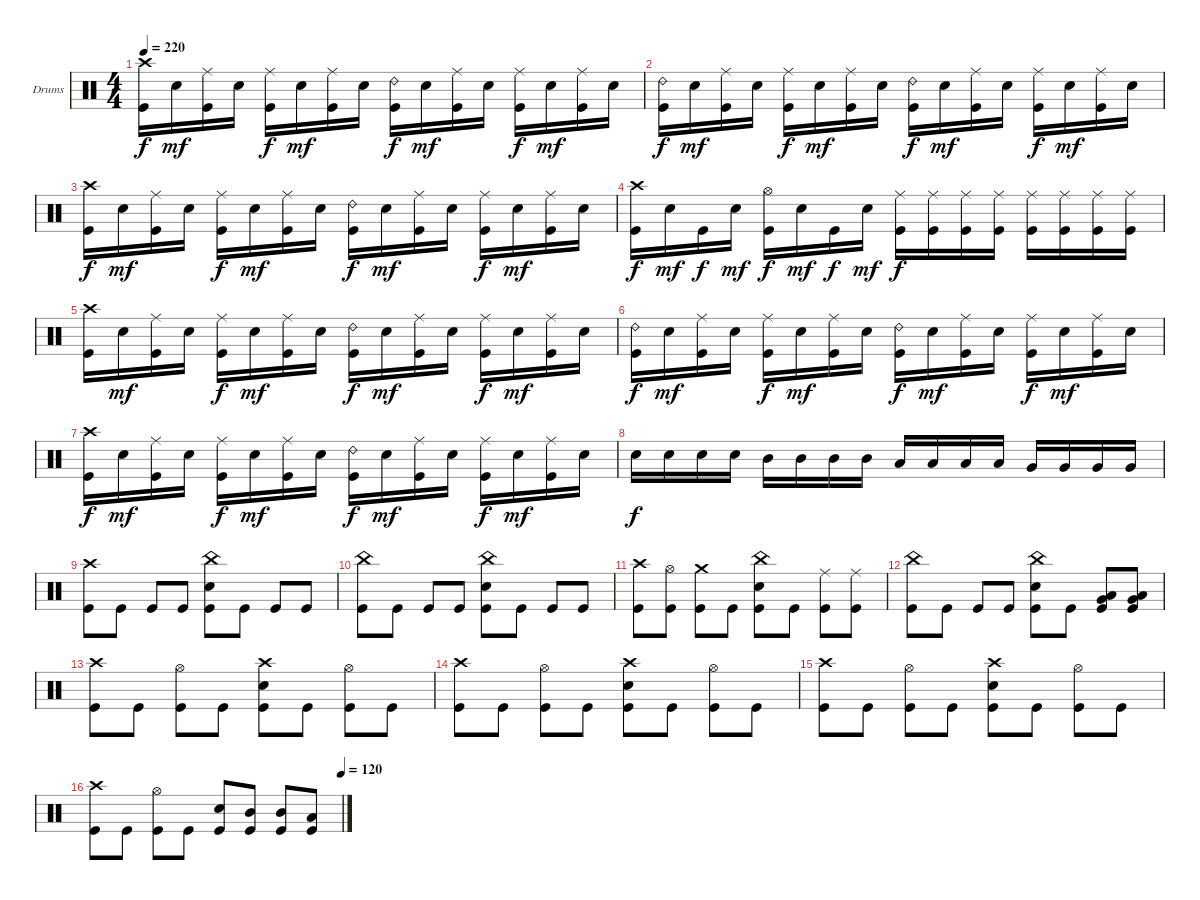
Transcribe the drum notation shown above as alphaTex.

\defaultSystemsLayout 4
\bracketExtendMode groupsimilarinstruments
\firstSystemTrackNameOrientation horizontal
\otherSystemsTrackNameOrientation horizontal
\track ("Drumkit" "Drums") {instrument percussion}
\staff {score}
\articulation defaults
\ts (4 4)
\tempo 220
\clef neutral
\scale
0.333333
\ks c
("Crash high (hit)" "Kick (hit)").16{dy f} "Snare (hit) 2".16{dy mf} ("Ride (middle)" "Kick (hit)").16 "Snare (hit) 2".16 ("Ride (middle)" "Kick (hit)").16{dy f} "Snare (hit) 2".16{dy mf} ("Ride (middle)" "Kick (hit)").16 "Snare (hit) 2".16 ("Ride (bell) 2" "Kick (hit)").16{dy f} "Snare (hit) 2".16{dy mf} ("Ride (middle)" "Kick (hit)").16 "Snare (hit) 2".16 ("Ride (middle)" "Kick (hit)").16{dy f} "Snare (hit) 2".16{dy mf} ("Ride (middle)" "Kick (hit)").16 "Snare (hit) 2".16 |
\scale
0.333333 ("Ride (bell) 2" "Kick (hit)").16{dy f} "Snare (hit) 2".16{dy mf} ("Ride (middle)" "Kick (hit)").16 "Snare (hit) 2".16 ("Ride (middle)" "Kick (hit)").16{dy f} "Snare (hit) 2".16{dy mf} ("Ride (middle)" "Kick (hit)").16 "Snare (hit) 2".16 ("Ride (bell) 2" "Kick (hit)").16{dy f} "Snare (hit) 2".16{dy mf} ("Ride (middle)" "Kick (hit)").16 "Snare (hit) 2".16 ("Ride (middle)" "Kick (hit)").16{dy f} "Snare (hit) 2".16{dy mf} ("Ride (middle)" "Kick (hit)").16 "Snare (hit) 2".16 |
\scale
0.333333 ("Crash high (hit)" "Kick (hit)").16{dy f} "Snare (hit) 2".16{dy mf} ("Ride (middle)" "Kick (hit)").16 "Snare (hit) 2".16 ("Ride (middle)" "Kick (hit)").16{dy f} "Snare (hit) 2".16{dy mf} ("Ride (middle)" "Kick (hit)").16 "Snare (hit) 2".16 ("Ride (bell) 2" "Kick (hit)").16{dy f} "Snare (hit) 2".16{dy mf} ("Ride (middle)" "Kick (hit)").16 "Snare (hit) 2".16 ("Ride (middle)" "Kick (hit)").16{dy f} "Snare (hit) 2".16{dy mf} ("Ride (middle)" "Kick (hit)").16 "Snare (hit) 2".16 |
\scale
0.333333 ("Crash high (hit)" "Kick (hit)").16{dy f} "Snare (hit) 2".16{dy mf} "Kick (hit)".16{dy f} "Snare (hit) 2".16{dy mf} ("Hi-Hat (open)" "Kick (hit)").16{dy f} "Snare (hit) 2".16{dy mf} "Kick (hit)".16{dy f} "Snare (hit) 2".16{dy mf} ("Ride (middle)" "Kick (hit)").16{dy f} ("Ride (middle)" "Kick (hit)").16 ("Ride (middle)" "Kick (hit)").16 ("Ride (middle)" "Kick (hit)").16 ("Ride (middle)" "Kick (hit)").16 ("Ride (middle)" "Kick (hit)").16 ("Ride (middle)" "Kick (hit)").16 ("Ride (middle)" "Kick (hit)").16 |
\scale
0.333333 ("Crash high (hit)" "Kick (hit)").16 "Snare (hit) 2".16{dy mf} ("Ride (middle)" "Kick (hit)").16 "Snare (hit) 2".16 ("Ride (middle)" "Kick (hit)").16{dy f} "Snare (hit) 2".16{dy mf} ("Ride (middle)" "Kick (hit)").16 "Snare (hit) 2".16 ("Ride (bell) 2" "Kick (hit)").16{dy f} "Snare (hit) 2".16{dy mf} ("Ride (middle)" "Kick (hit)").16 "Snare (hit) 2".16 ("Ride (middle)" "Kick (hit)").16{dy f} "Snare (hit) 2".16{dy mf} ("Ride (middle)" "Kick (hit)").16 "Snare (hit) 2".16 |
\scale
0.333333 ("Ride (bell) 2" "Kick (hit)").16{dy f} "Snare (hit) 2".16{dy mf} ("Ride (middle)" "Kick (hit)").16 "Snare (hit) 2".16 ("Ride (middle)" "Kick (hit)").16{dy f} "Snare (hit) 2".16{dy mf} ("Ride (middle)" "Kick (hit)").16 "Snare (hit) 2".16 ("Ride (bell) 2" "Kick (hit)").16{dy f} "Snare (hit) 2".16{dy mf} ("Ride (middle)" "Kick (hit)").16 "Snare (hit) 2".16 ("Ride (middle)" "Kick (hit)").16{dy f} "Snare (hit) 2".16{dy mf} ("Ride (middle)" "Kick (hit)").16 "Snare (hit) 2".16 |
\scale
0.333333 ("Crash high (hit)" "Kick (hit)").16{dy f} "Snare (hit) 2".16{dy mf} ("Ride (middle)" "Kick (hit)").16 "Snare (hit) 2".16 ("Ride (middle)" "Kick (hit)").16{dy f} "Snare (hit) 2".16{dy mf} ("Ride (middle)" "Kick (hit)").16 "Snare (hit) 2".16 ("Ride (bell) 2" "Kick (hit)").16{dy f} "Snare (hit) 2".16{dy mf} ("Ride (middle)" "Kick (hit)").16 "Snare (hit) 2".16 ("Ride (middle)" "Kick (hit)").16{dy f} "Snare (hit) 2".16{dy mf} ("Ride (middle)" "Kick (hit)").16 "Snare (hit) 2".16 |
\scale
0.333333 "Snare (hit) 2".16{dy f} "Snare (hit) 2".16 "Snare (hit) 2".16 "Snare (hit) 2".16 "Mid Tom (hit)".16 "Mid Tom (hit)".16 "Mid Tom (hit)".16 "Mid Tom (hit)".16 "Low Tom (hit)".16 "Low Tom (hit)".16 "Low Tom (hit)".16 "Low Tom (hit)".16 "Very Low Tom (hit)".16 "Very Low Tom (hit)".16 "Very Low Tom (hit)".16 "Very Low Tom (hit)".16 |
\scale
0.333333 ("Crash high (hit)" "Kick (hit)").8 "Kick (hit)".8 "Kick (hit)".8 "Kick (hit)".8 ("China (hit)" "Snare (hit) 2" "Kick (hit)").8 "Kick (hit)".8 "Kick (hit)".8 "Kick (hit)".8 |
\scale
0.333333 ("China (hit)" "Kick (hit)").8 "Kick (hit)".8 "Kick (hit)".8 "Kick (hit)".8 ("China (hit)" "Snare (hit) 2" "Kick (hit)").8 "Kick (hit)".8 "Kick (hit)".8 "Kick (hit)".8 |
\scale
0.333333 ("Crash high (hit)" "Kick (hit)").8 ("Hi-Hat (open)" "Kick (hit)").8 ("Crash medium (hit)" "Kick (hit)").8 "Kick (hit)".8 ("China (hit)" "Snare (hit) 2" "Kick (hit)").8 "Kick (hit)".8 ("Ride (middle)" "Kick (hit)").8 ("Ride (middle)" "Kick (hit)").8 |
\scale
0.333333 ("China (hit)" "Kick (hit)").8 "Kick (hit)".8 "Kick (hit)".8 "Kick (hit)".8 ("China (hit)" "Snare (hit) 2" "Kick (hit)").8 "Kick (hit)".8 ("Very Low Tom (hit)" "Low Tom (hit)" "Kick (hit)").8 ("Very Low Tom (hit)" "Low Tom (hit)" "Kick (hit)").8 |
\scale
0.333333 ("Crash high (hit)" "Kick (hit)").8 "Kick (hit)".8 ("Hi-Hat (open)" "Kick (hit)").8 "Kick (hit)".8 ("Crash high (hit)" "Snare (hit) 2" "Kick (hit)").8 "Kick (hit)".8 ("Hi-Hat (open)" "Kick (hit)").8 "Kick (hit)".8 |
\scale
0.333333 ("Crash high (hit)" "Kick (hit)").8 "Kick (hit)".8 ("Hi-Hat (open)" "Kick (hit)").8 "Kick (hit)".8 ("Crash high (hit)" "Snare (hit) 2" "Kick (hit)").8 "Kick (hit)".8 ("Hi-Hat (open)" "Kick (hit)").8 "Kick (hit)".8 |
\scale
0.333333 ("Crash high (hit)" "Kick (hit)").8 "Kick (hit)".8 ("Hi-Hat (open)" "Kick (hit)").8 "Kick (hit)".8 ("Crash high (hit)" "Snare (hit) 2" "Kick (hit)").8 "Kick (hit)".8 ("Hi-Hat (open)" "Kick (hit)").8 "Kick (hit)".8 |
\tempo (120 1)
\scale
0.333333 ("Crash high (hit)" "Kick (hit)").8 "Kick (hit)".8 ("Hi-Hat (open)" "Kick (hit)").8 "Kick (hit)".8 ("Snare (hit) 2" "Kick (hit)").8 ("Mid Tom (hit)" "Kick (hit)").8 ("Mid Tom (hit)" "Kick (hit)").8 ("Low Tom (hit)" "Kick (hit)").8
